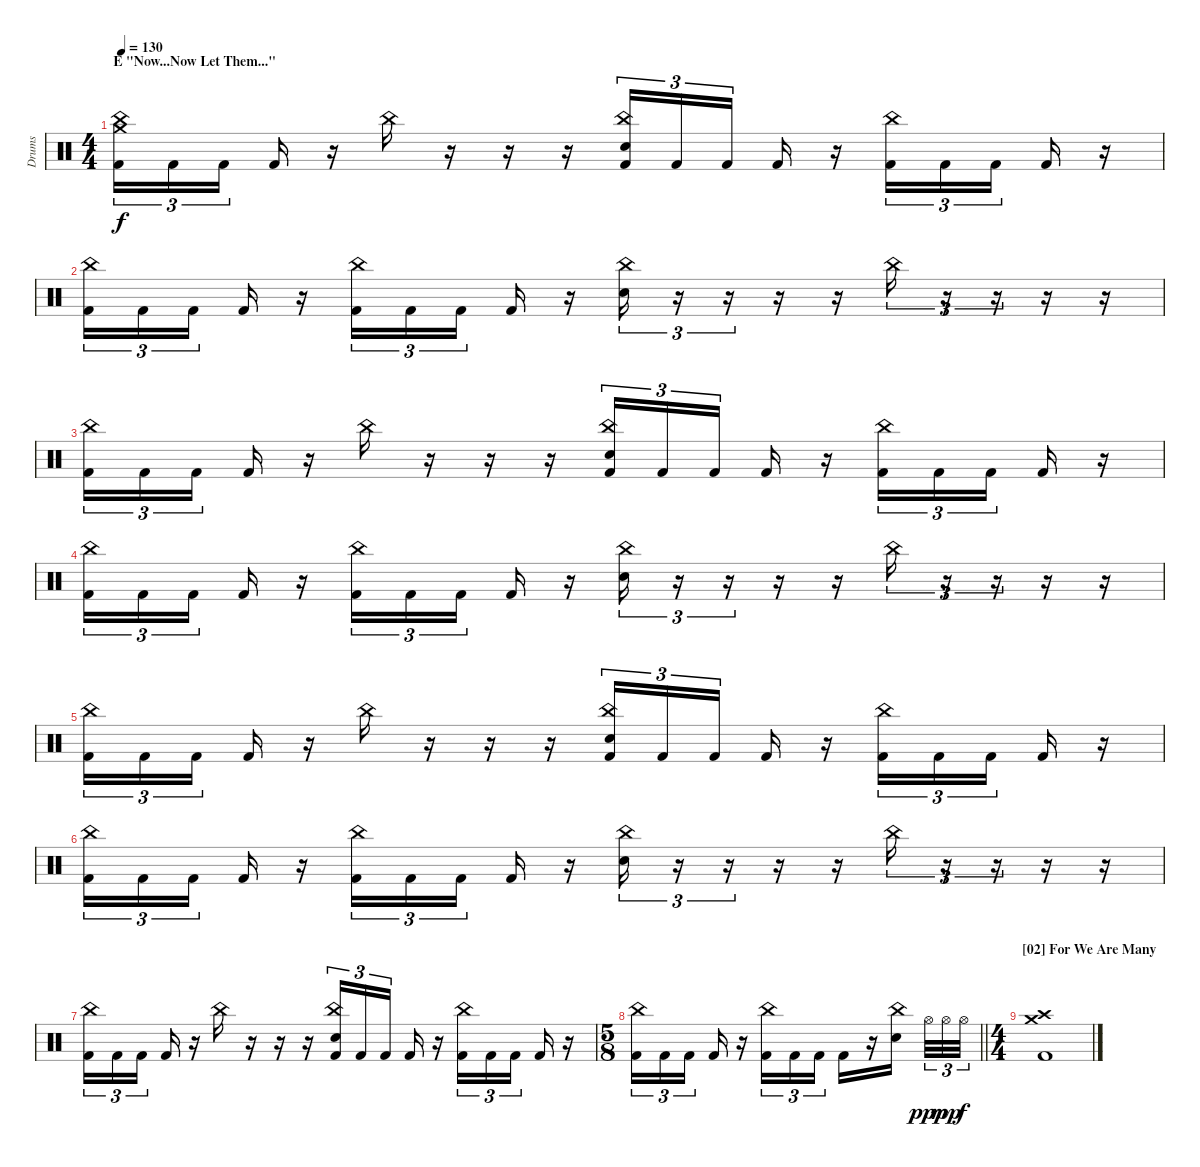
\track ("Drums" "Drums") {instrument percussion}
\staff {score}
\articulation defaults
\ts (4 4)
\section ("" "E \"Now...Now Let Them...\"")
\tempo 130
\clef neutral
\ks c
("Kick (hit) 2" "China (hit)" "Crash medium (hit)").16{tu (3 2) dy f} "Kick (hit) 2".16{tu (3 2)} "Kick (hit) 2".16{tu (3 2) beam splitsecondary} "Kick (hit) 2".16 r.16 "China (hit)".16 r.16 r.16 r.16 ("Kick (hit) 2" "Snare (hit) 2" "China (hit)").16{tu (3 2)} "Kick (hit) 2".16{tu (3 2)} "Kick (hit) 2".16{tu (3 2) beam splitsecondary} "Kick (hit) 2".16 r.16 ("Kick (hit) 2" "China (hit)").16{tu (3 2)} "Kick (hit) 2".16{tu (3 2)} "Kick (hit) 2".16{tu (3 2) beam splitsecondary} "Kick (hit) 2".16 r.16 |
("Kick (hit) 2" "China (hit)").16{tu (3 2)} "Kick (hit) 2".16{tu (3 2)} "Kick (hit) 2".16{tu (3 2) beam splitsecondary} "Kick (hit) 2".16 r.16 ("Kick (hit) 2" "China (hit)").16{tu (3 2)} "Kick (hit) 2".16{tu (3 2)} "Kick (hit) 2".16{tu (3 2) beam splitsecondary} "Kick (hit) 2".16 r.16 ("Snare (hit) 2" "China (hit)").16{tu (3 2)} r.16{tu (3 2)} r.16{tu (3 2)} r.16 r.16 "China (hit)".16{tu (3 2)} r.16{tu (3 2)} r.16{tu (3 2)} r.16 r.16 |
("Kick (hit) 2" "China (hit)").16{tu (3 2)} "Kick (hit) 2".16{tu (3 2)} "Kick (hit) 2".16{tu (3 2) beam splitsecondary} "Kick (hit) 2".16 r.16 "China (hit)".16 r.16 r.16 r.16 ("Kick (hit) 2" "Snare (hit) 2" "China (hit)").16{tu (3 2)} "Kick (hit) 2".16{tu (3 2)} "Kick (hit) 2".16{tu (3 2) beam splitsecondary} "Kick (hit) 2".16 r.16 ("Kick (hit) 2" "China (hit)").16{tu (3 2)} "Kick (hit) 2".16{tu (3 2)} "Kick (hit) 2".16{tu (3 2) beam splitsecondary} "Kick (hit) 2".16 r.16 |
("Kick (hit) 2" "China (hit)").16{tu (3 2)} "Kick (hit) 2".16{tu (3 2)} "Kick (hit) 2".16{tu (3 2) beam splitsecondary} "Kick (hit) 2".16 r.16 ("Kick (hit) 2" "China (hit)").16{tu (3 2)} "Kick (hit) 2".16{tu (3 2)} "Kick (hit) 2".16{tu (3 2) beam splitsecondary} "Kick (hit) 2".16 r.16 ("Snare (hit) 2" "China (hit)").16{tu (3 2)} r.16{tu (3 2)} r.16{tu (3 2)} r.16 r.16 "China (hit)".16{tu (3 2)} r.16{tu (3 2)} r.16{tu (3 2)} r.16 r.16 |
("Kick (hit) 2" "China (hit)").16{tu (3 2)} "Kick (hit) 2".16{tu (3 2)} "Kick (hit) 2".16{tu (3 2) beam splitsecondary} "Kick (hit) 2".16 r.16 "China (hit)".16 r.16 r.16 r.16 ("Kick (hit) 2" "Snare (hit) 2" "China (hit)").16{tu (3 2)} "Kick (hit) 2".16{tu (3 2)} "Kick (hit) 2".16{tu (3 2) beam splitsecondary} "Kick (hit) 2".16 r.16 ("Kick (hit) 2" "China (hit)").16{tu (3 2)} "Kick (hit) 2".16{tu (3 2)} "Kick (hit) 2".16{tu (3 2) beam splitsecondary} "Kick (hit) 2".16 r.16 |
("Kick (hit) 2" "China (hit)").16{tu (3 2)} "Kick (hit) 2".16{tu (3 2)} "Kick (hit) 2".16{tu (3 2) beam splitsecondary} "Kick (hit) 2".16 r.16 ("Kick (hit) 2" "China (hit)").16{tu (3 2)} "Kick (hit) 2".16{tu (3 2)} "Kick (hit) 2".16{tu (3 2) beam splitsecondary} "Kick (hit) 2".16 r.16 ("Snare (hit) 2" "China (hit)").16{tu (3 2)} r.16{tu (3 2)} r.16{tu (3 2)} r.16 r.16 "China (hit)".16{tu (3 2)} r.16{tu (3 2)} r.16{tu (3 2)} r.16 r.16 |
("Kick (hit) 2" "China (hit)").16{tu (3 2)} "Kick (hit) 2".16{tu (3 2)} "Kick (hit) 2".16{tu (3 2) beam splitsecondary} "Kick (hit) 2".16 r.16 "China (hit)".16 r.16 r.16 r.16 ("Kick (hit) 2" "Snare (hit) 2" "China (hit)").16{tu (3 2)} "Kick (hit) 2".16{tu (3 2)} "Kick (hit) 2".16{tu (3 2) beam splitsecondary} "Kick (hit) 2".16 r.16 ("Kick (hit) 2" "China (hit)").16{tu (3 2)} "Kick (hit) 2".16{tu (3 2)} "Kick (hit) 2".16{tu (3 2) beam splitsecondary} "Kick (hit) 2".16 r.16 |
\ts (5 8)
\barLineRight lightlight
("Kick (hit) 2" "China (hit)").16{tu (3 2)} "Kick (hit) 2".16{tu (3 2)} "Kick (hit) 2".16{tu (3 2)} "Kick (hit) 2".16 r.16 ("Kick (hit) 2" "China (hit)").16{tu (3 2)} "Kick (hit) 2".16{tu (3 2)} "Kick (hit) 2".16{tu (3 2)} "Kick (hit) 2".16 r.16 ("Snare (hit) 2" "China (hit)").16{beam splitsecondary} "Hi-Hat (open)".32{tu (3 2) dy ppp} "Hi-Hat (open)".32{tu (3 2) dy mp} "Hi-Hat (open)".32{tu (3 2) dy f} |
\ts (4 4)
\section ("" "[02] For We Are Many")
("Kick (hit) 2" "Crash high (hit)" "Crash medium (hit)").1
